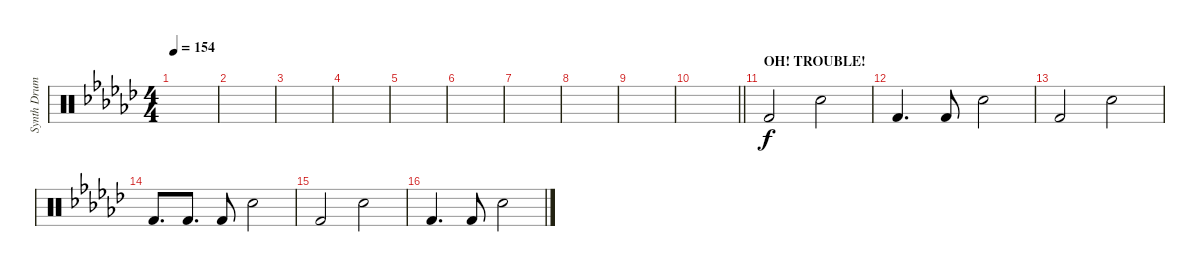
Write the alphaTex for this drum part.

\track ("Synth Drums" "Synth Drum") {instrument percussion}
\staff {score}
\articulation defaults
\ts (4 4)
\tempo 154
\clef neutral
\ks gb
|
|
|
|
|
|
|
|
|
\barLineRight lightlight
|
\section ("" "OH! TROUBLE!")
"Kick (hit) 2".2 "Electric Snare (hit)".2 |
"Kick (hit) 2".4{d} "Kick (hit) 2".8 "Electric Snare (hit)".2 |
"Kick (hit) 2".2 "Electric Snare (hit)".2 |
"Kick (hit) 2".8{d} "Kick (hit) 2".8{d} "Kick (hit) 2".8 "Electric Snare (hit)".2 |
"Kick (hit) 2".2 "Electric Snare (hit)".2 |
"Kick (hit) 2".4{d} "Kick (hit) 2".8 "Electric Snare (hit)".2
